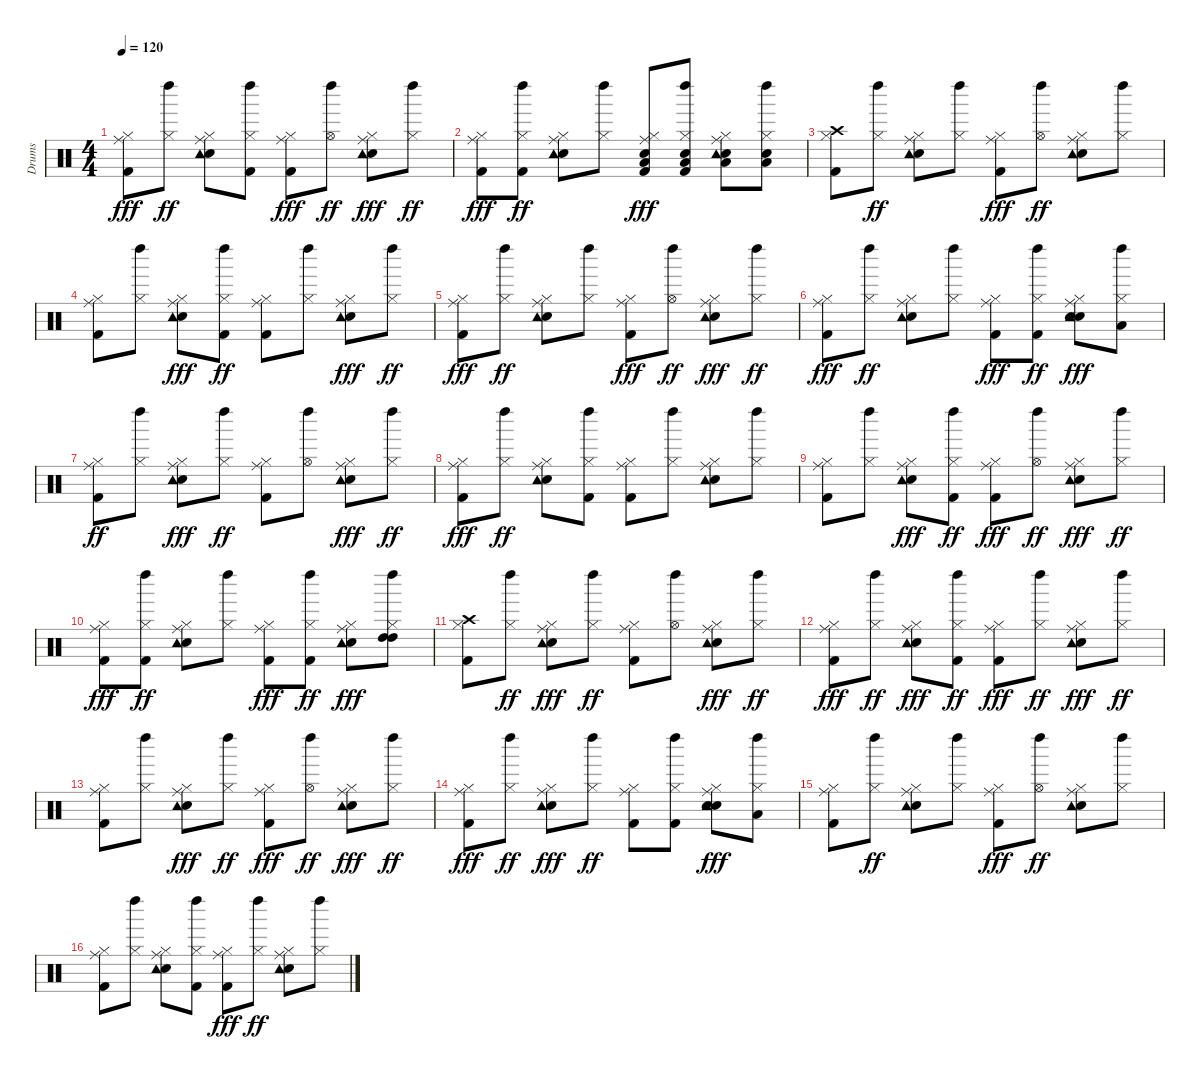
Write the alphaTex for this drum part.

\track ("Drums" "Drums") {instrument percussion}
\staff {score}
\articulation defaults
\ts (4 4)
\tempo 120
\clef neutral
\ks c
("Kick (hit) 2" "Hi-Hat (closed)" "Ride (middle)").8{dy fff} ("Hi-Hat (closed)" "Left Maraca (hit)").8{dy ff} ("Hi-Hat (closed)" "Snare (hit) 2" "Tambourine (hit)" "Ride (middle)").8 ("Kick (hit) 2" "Hi-Hat (closed)" "Left Maraca (hit)").8 ("Kick (hit) 2" "Hi-Hat (closed)" "Ride (middle)").8{dy fff} ("Hi-Hat (open)" "Left Maraca (hit)").8{dy ff} ("Hi-Hat (closed)" "Snare (hit) 2" "Tambourine (hit)" "Ride (middle)").8{dy fff} ("Hi-Hat (closed)" "Left Maraca (hit)").8{dy ff} |
("Kick (hit) 2" "Hi-Hat (closed)" "Ride (middle)").8{dy fff} ("Kick (hit) 2" "Hi-Hat (closed)" "Left Maraca (hit)").8{dy ff} ("Hi-Hat (closed)" "Snare (hit) 2" "Tambourine (hit)" "Ride (middle)").8 ("Hi-Hat (closed)" "Left Maraca (hit)").8 ("Kick (hit) 2" "Hi-Hat (closed)" "Snare (hit) 2" "Ride (middle)" "Low Floor Tom (hit)").8{dy fff} ("Kick (hit) 2" "Hi-Hat (closed)" "Left Maraca (hit)" "Snare (hit) 2" "Low Floor Tom (hit)").8 ("Hi-Hat (closed)" "Low Floor Tom (hit)" "Snare (hit) 2" "Tambourine (hit)" "Ride (middle)").8 ("Hi-Hat (closed)" "Left Maraca (hit)" "Snare (hit) 2" "Low Floor Tom (hit)").8 |
("Kick (hit) 2" "Hi-Hat (closed)" "Crash high (hit)").8 ("Hi-Hat (closed)" "Left Maraca (hit)").8{dy ff} ("Hi-Hat (closed)" "Snare (hit) 2" "Tambourine (hit)" "Ride (middle)").8 ("Hi-Hat (closed)" "Left Maraca (hit)").8 ("Kick (hit) 2" "Hi-Hat (closed)" "Ride (middle)").8{dy fff} ("Hi-Hat (open)" "Left Maraca (hit)").8{dy ff} ("Hi-Hat (closed)" "Snare (hit) 2" "Tambourine (hit)" "Ride (middle)").8 ("Hi-Hat (closed)" "Left Maraca (hit)").8 |
("Kick (hit) 2" "Hi-Hat (closed)" "Ride (middle)").8 ("Hi-Hat (closed)" "Left Maraca (hit)").8 ("Hi-Hat (closed)" "Snare (hit) 2" "Tambourine (hit)" "Ride (middle)").8{dy fff} ("Kick (hit) 2" "Hi-Hat (closed)" "Left Maraca (hit)").8{dy ff} ("Kick (hit) 2" "Hi-Hat (closed)" "Ride (middle)").8 ("Hi-Hat (closed)" "Left Maraca (hit)").8 ("Hi-Hat (closed)" "Snare (hit) 2" "Tambourine (hit)" "Ride (middle)").8{dy fff} ("Hi-Hat (closed)" "Left Maraca (hit)").8{dy ff} |
("Kick (hit) 2" "Hi-Hat (closed)" "Ride (middle)").8{dy fff} ("Hi-Hat (closed)" "Left Maraca (hit)").8{dy ff} ("Hi-Hat (closed)" "Snare (hit) 2" "Tambourine (hit)" "Ride (middle)").8 ("Hi-Hat (closed)" "Left Maraca (hit)").8 ("Kick (hit) 2" "Hi-Hat (closed)" "Ride (middle)").8{dy fff} ("Hi-Hat (open)" "Left Maraca (hit)").8{dy ff} ("Hi-Hat (closed)" "Snare (hit) 2" "Tambourine (hit)" "Ride (middle)").8{dy fff} ("Hi-Hat (closed)" "Left Maraca (hit)").8{dy ff} |
("Kick (hit) 2" "Hi-Hat (closed)" "Ride (middle)").8{dy fff} ("Hi-Hat (closed)" "Left Maraca (hit)").8{dy ff} ("Hi-Hat (closed)" "Snare (hit) 2" "Tambourine (hit)" "Ride (middle)").8 ("Hi-Hat (closed)" "Left Maraca (hit)").8 ("Kick (hit) 2" "Hi-Hat (closed)" "Ride (middle)").8{dy fff} ("Kick (hit) 2" "Hi-Hat (closed)" "Left Maraca (hit)").8{dy ff} ("Hi-Hat (closed)" "Snare (hit) 2" "Tambourine (hit)" "Ride (middle)" "Snare (hit) 2").8{dy fff} ("Hi-Hat (closed)" "Left Maraca (hit)" "Low Floor Tom (hit)").8 |
("Kick (hit) 2" "Hi-Hat (closed)" "Ride (middle)").8{dy ff} ("Hi-Hat (closed)" "Left Maraca (hit)").8 ("Hi-Hat (closed)" "Snare (hit) 2" "Tambourine (hit)" "Ride (middle)").8{dy fff} ("Hi-Hat (closed)" "Left Maraca (hit)").8{dy ff} ("Kick (hit) 2" "Hi-Hat (closed)" "Ride (middle)").8 ("Hi-Hat (open)" "Left Maraca (hit)").8 ("Hi-Hat (closed)" "Snare (hit) 2" "Tambourine (hit)" "Ride (middle)").8{dy fff} ("Hi-Hat (closed)" "Left Maraca (hit)").8{dy ff} |
("Kick (hit) 2" "Hi-Hat (closed)" "Ride (middle)").8{dy fff} ("Hi-Hat (closed)" "Left Maraca (hit)").8{dy ff} ("Hi-Hat (closed)" "Snare (hit) 2" "Tambourine (hit)" "Ride (middle)").8 ("Kick (hit) 2" "Hi-Hat (closed)" "Left Maraca (hit)").8 ("Kick (hit) 2" "Hi-Hat (closed)" "Ride (middle)").8 ("Hi-Hat (closed)" "Left Maraca (hit)").8 ("Hi-Hat (closed)" "Snare (hit) 2" "Tambourine (hit)" "Ride (middle)").8 ("Hi-Hat (closed)" "Left Maraca (hit)").8 |
("Kick (hit) 2" "Hi-Hat (closed)" "Ride (middle)").8 ("Hi-Hat (closed)" "Left Maraca (hit)").8 ("Hi-Hat (closed)" "Snare (hit) 2" "Tambourine (hit)" "Ride (middle)").8{dy fff} ("Kick (hit) 2" "Hi-Hat (closed)" "Left Maraca (hit)").8{dy ff} ("Kick (hit) 2" "Hi-Hat (closed)" "Ride (middle)").8{dy fff} ("Hi-Hat (open)" "Left Maraca (hit)").8{dy ff} ("Hi-Hat (closed)" "Snare (hit) 2" "Tambourine (hit)" "Ride (middle)").8{dy fff} ("Hi-Hat (closed)" "Left Maraca (hit)").8{dy ff} |
("Kick (hit) 2" "Hi-Hat (closed)" "Ride (middle)").8{dy fff} ("Kick (hit) 2" "Hi-Hat (closed)" "Left Maraca (hit)").8{dy ff} ("Hi-Hat (closed)" "Snare (hit) 2" "Tambourine (hit)" "Ride (middle)").8 ("Hi-Hat (closed)" "Left Maraca (hit)").8 ("Kick (hit) 2" "Hi-Hat (closed)" "Ride (middle)").8{dy fff} ("Kick (hit) 2" "Hi-Hat (closed)" "Left Maraca (hit)").8{dy ff} ("Hi-Hat (closed)" "Snare (hit) 2" "Tambourine (hit)" "Ride (middle)").8{dy fff} ("Hi-Hat (closed)" "Left Maraca (hit)" "High Tom (hit)" "High Tom (hit)").8 |
("Kick (hit) 2" "Hi-Hat (closed)" "Crash high (hit)").8 ("Hi-Hat (closed)" "Left Maraca (hit)").8{dy ff} ("Hi-Hat (closed)" "Snare (hit) 2" "Tambourine (hit)" "Ride (middle)").8{dy fff} ("Hi-Hat (closed)" "Left Maraca (hit)").8{dy ff} ("Kick (hit) 2" "Hi-Hat (closed)" "Ride (middle)").8 ("Hi-Hat (open)" "Left Maraca (hit)").8 ("Hi-Hat (closed)" "Snare (hit) 2" "Tambourine (hit)" "Ride (middle)").8{dy fff} ("Hi-Hat (closed)" "Left Maraca (hit)").8{dy ff} |
("Kick (hit) 2" "Hi-Hat (closed)" "Ride (middle)").8{dy fff} ("Hi-Hat (closed)" "Left Maraca (hit)").8{dy ff} ("Hi-Hat (closed)" "Snare (hit) 2" "Tambourine (hit)" "Ride (middle)").8{dy fff} ("Kick (hit) 2" "Hi-Hat (closed)" "Left Maraca (hit)").8{dy ff} ("Kick (hit) 2" "Hi-Hat (closed)" "Ride (middle)").8{dy fff} ("Hi-Hat (closed)" "Left Maraca (hit)").8{dy ff} ("Hi-Hat (closed)" "Snare (hit) 2" "Tambourine (hit)" "Ride (middle)").8{dy fff} ("Hi-Hat (closed)" "Left Maraca (hit)").8{dy ff} |
("Kick (hit) 2" "Hi-Hat (closed)" "Ride (middle)").8 ("Hi-Hat (closed)" "Left Maraca (hit)").8 ("Hi-Hat (closed)" "Snare (hit) 2" "Tambourine (hit)" "Ride (middle)").8{dy fff} ("Hi-Hat (closed)" "Left Maraca (hit)").8{dy ff} ("Kick (hit) 2" "Hi-Hat (closed)" "Ride (middle)").8{dy fff} ("Hi-Hat (open)" "Left Maraca (hit)").8{dy ff} ("Hi-Hat (closed)" "Snare (hit) 2" "Tambourine (hit)" "Ride (middle)").8{dy fff} ("Hi-Hat (closed)" "Left Maraca (hit)").8{dy ff} |
("Kick (hit) 2" "Hi-Hat (closed)" "Ride (middle)").8{dy fff} ("Hi-Hat (closed)" "Left Maraca (hit)").8{dy ff} ("Hi-Hat (closed)" "Snare (hit) 2" "Tambourine (hit)" "Ride (middle)").8{dy fff} ("Hi-Hat (closed)" "Left Maraca (hit)").8{dy ff} ("Kick (hit) 2" "Hi-Hat (closed)" "Ride (middle)").8 ("Kick (hit) 2" "Hi-Hat (closed)" "Left Maraca (hit)").8 ("Hi-Hat (closed)" "Snare (hit) 2" "Tambourine (hit)" "Ride (middle)" "Snare (hit) 2").8{dy fff} ("Hi-Hat (closed)" "Left Maraca (hit)" "Low Floor Tom (hit)").8 |
("Kick (hit) 2" "Hi-Hat (closed)" "Ride (middle)").8 ("Hi-Hat (closed)" "Left Maraca (hit)").8{dy ff} ("Hi-Hat (closed)" "Snare (hit) 2" "Tambourine (hit)" "Ride (middle)").8 ("Hi-Hat (closed)" "Left Maraca (hit)").8 ("Kick (hit) 2" "Hi-Hat (closed)" "Ride (middle)").8{dy fff} ("Hi-Hat (open)" "Left Maraca (hit)").8{dy ff} ("Hi-Hat (closed)" "Snare (hit) 2" "Tambourine (hit)" "Ride (middle)").8 ("Hi-Hat (closed)" "Left Maraca (hit)").8 |
("Kick (hit) 2" "Hi-Hat (closed)" "Ride (middle)").8 ("Hi-Hat (closed)" "Left Maraca (hit)").8 ("Hi-Hat (closed)" "Snare (hit) 2" "Tambourine (hit)" "Ride (middle)").8 ("Kick (hit) 2" "Hi-Hat (closed)" "Left Maraca (hit)").8 ("Kick (hit) 2" "Hi-Hat (closed)" "Ride (middle)").8{dy fff} ("Hi-Hat (closed)" "Left Maraca (hit)").8{dy ff} ("Hi-Hat (closed)" "Snare (hit) 2" "Tambourine (hit)" "Ride (middle)").8 ("Hi-Hat (closed)" "Left Maraca (hit)").8
